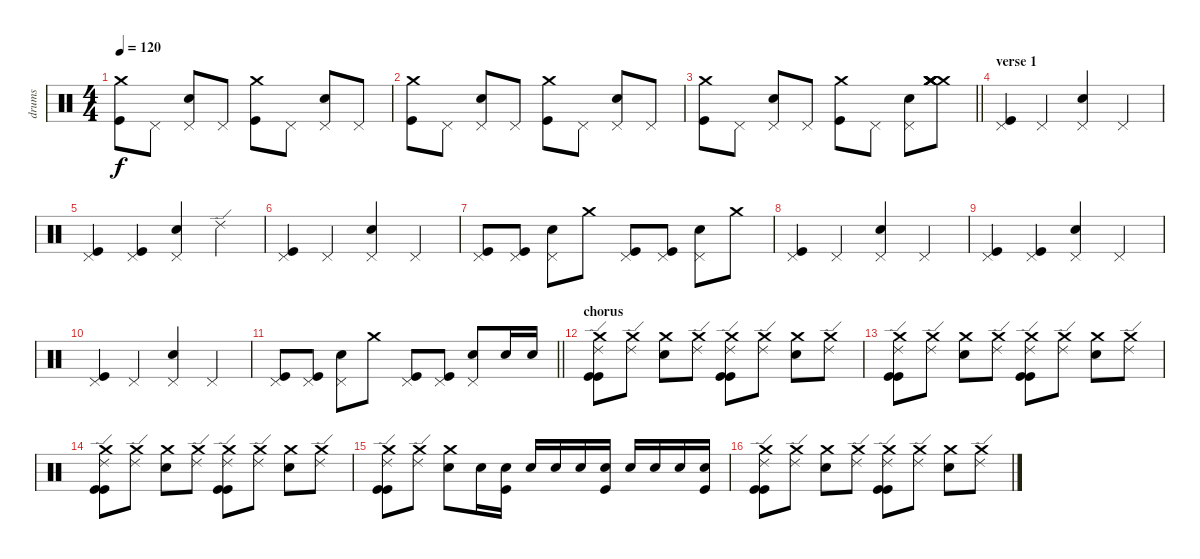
\track ("drums" "drums") {instrument percussion}
\staff {score}
\articulation defaults
\ts (4 4)
\tempo 120
\clef neutral
\ks c
("Crash medium (hit)" "Kick (hit)").8{dy f} "Pedal Hi-Hat (hit)".8 ("Pedal Hi-Hat (hit)" "Electric Snare (hit)").8 "Pedal Hi-Hat (hit)".8 ("Crash medium (hit)" "Kick (hit)").8 "Pedal Hi-Hat (hit)".8 ("Pedal Hi-Hat (hit)" "Electric Snare (hit)").8 "Pedal Hi-Hat (hit)".8 |
("Crash medium (hit)" "Kick (hit)").8 "Pedal Hi-Hat (hit)".8 ("Pedal Hi-Hat (hit)" "Electric Snare (hit)").8 "Pedal Hi-Hat (hit)".8 ("Crash medium (hit)" "Kick (hit)").8 "Pedal Hi-Hat (hit)".8 ("Pedal Hi-Hat (hit)" "Electric Snare (hit)").8 "Pedal Hi-Hat (hit)".8 |
\barLineRight lightlight
("Crash medium (hit)" "Kick (hit)").8 "Pedal Hi-Hat (hit)".8 ("Pedal Hi-Hat (hit)" "Electric Snare (hit)").8 "Pedal Hi-Hat (hit)".8 ("Crash medium (hit)" "Kick (hit)").8 "Pedal Hi-Hat (hit)".8 ("Pedal Hi-Hat (hit)" "Electric Snare (hit)").8 ("Crash medium (hit)" "Crash medium (hit)" "Crash medium (hit)" "Crash medium (hit)" "Crash medium (hit)" "Crash medium (hit)").8 |
\section ("" "verse 1")
("Pedal Hi-Hat (hit)" "Kick (hit)").4 "Pedal Hi-Hat (hit)".4 ("Pedal Hi-Hat (hit)" "Electric Snare (hit)").4 "Pedal Hi-Hat (hit)".4 |
("Pedal Hi-Hat (hit)" "Kick (hit)").4 ("Pedal Hi-Hat (hit)" "Kick (hit)").4 ("Pedal Hi-Hat (hit)" "Electric Snare (hit)").4 "Ride (edge) 2".4 |
("Pedal Hi-Hat (hit)" "Kick (hit)").4 "Pedal Hi-Hat (hit)".4 ("Pedal Hi-Hat (hit)" "Electric Snare (hit)").4 "Pedal Hi-Hat (hit)".4 |
("Pedal Hi-Hat (hit)" "Kick (hit)").8 ("Pedal Hi-Hat (hit)" "Kick (hit)").8 ("Pedal Hi-Hat (hit)" "Electric Snare (hit)").8 "Crash medium (hit)".8 ("Pedal Hi-Hat (hit)" "Kick (hit)").8 ("Pedal Hi-Hat (hit)" "Kick (hit)").8 ("Pedal Hi-Hat (hit)" "Electric Snare (hit)").8 "Crash medium (hit)".8 |
("Pedal Hi-Hat (hit)" "Kick (hit)").4 "Pedal Hi-Hat (hit)".4 ("Pedal Hi-Hat (hit)" "Electric Snare (hit)").4 "Pedal Hi-Hat (hit)".4 |
("Pedal Hi-Hat (hit)" "Kick (hit)").4 ("Pedal Hi-Hat (hit)" "Kick (hit)").4 ("Pedal Hi-Hat (hit)" "Electric Snare (hit)").4 "Pedal Hi-Hat (hit)".4 |
("Pedal Hi-Hat (hit)" "Kick (hit)").4 "Pedal Hi-Hat (hit)".4 ("Pedal Hi-Hat (hit)" "Electric Snare (hit)").4 "Pedal Hi-Hat (hit)".4 |
\barLineRight lightlight
("Pedal Hi-Hat (hit)" "Kick (hit)").8 ("Pedal Hi-Hat (hit)" "Kick (hit)").8 ("Pedal Hi-Hat (hit)" "Electric Snare (hit)").8 "Crash medium (hit)".8 ("Pedal Hi-Hat (hit)" "Kick (hit)").8 ("Pedal Hi-Hat (hit)" "Kick (hit)").8 ("Pedal Hi-Hat (hit)" "Electric Snare (hit)").8 "Electric Snare (hit)".16 "Electric Snare (hit)".16 |
\section ("" "chorus")
("Crash medium (hit)" "Ride (edge) 2" "Kick (hit)" "Kick (hit)").8 ("Crash medium (hit)" "Ride (edge) 2").8 ("Crash medium (hit)" "Electric Snare (hit)").8 ("Crash medium (hit)" "Ride (edge) 2").8 ("Crash medium (hit)" "Ride (edge) 2" "Kick (hit)" "Kick (hit)").8 ("Crash medium (hit)" "Ride (edge) 2").8 ("Crash medium (hit)" "Electric Snare (hit)").8 ("Crash medium (hit)" "Ride (edge) 2").8 |
("Crash medium (hit)" "Ride (edge) 2" "Kick (hit)" "Kick (hit)").8 ("Crash medium (hit)" "Ride (edge) 2").8 ("Crash medium (hit)" "Electric Snare (hit)").8 ("Crash medium (hit)" "Ride (edge) 2").8 ("Crash medium (hit)" "Ride (edge) 2" "Kick (hit)" "Kick (hit)").8 ("Crash medium (hit)" "Ride (edge) 2").8 ("Crash medium (hit)" "Electric Snare (hit)").8 ("Crash medium (hit)" "Ride (edge) 2").8 |
("Crash medium (hit)" "Ride (edge) 2" "Kick (hit)" "Kick (hit)").8 ("Crash medium (hit)" "Ride (edge) 2").8 ("Crash medium (hit)" "Electric Snare (hit)").8 ("Crash medium (hit)" "Ride (edge) 2").8 ("Crash medium (hit)" "Ride (edge) 2" "Kick (hit)" "Kick (hit)").8 ("Crash medium (hit)" "Ride (edge) 2").8 ("Crash medium (hit)" "Electric Snare (hit)").8 ("Crash medium (hit)" "Ride (edge) 2").8 |
("Crash medium (hit)" "Ride (edge) 2" "Kick (hit)" "Kick (hit)").8 ("Crash medium (hit)" "Ride (edge) 2").8 ("Crash medium (hit)" "Electric Snare (hit)").8 "Electric Snare (hit)".16 ("Electric Snare (hit)" "Kick (hit)").16 "Electric Snare (hit)".16 "Electric Snare (hit)".16 "Electric Snare (hit)".16 ("Electric Snare (hit)" "Kick (hit)").16 "Electric Snare (hit)".16 "Electric Snare (hit)".16 "Electric Snare (hit)".16 ("Electric Snare (hit)" "Kick (hit)").16 |
("Crash medium (hit)" "Ride (edge) 2" "Kick (hit)" "Kick (hit)").8 ("Crash medium (hit)" "Ride (edge) 2").8 ("Crash medium (hit)" "Electric Snare (hit)").8 ("Crash medium (hit)" "Ride (edge) 2").8 ("Crash medium (hit)" "Ride (edge) 2" "Kick (hit)" "Kick (hit)").8 ("Crash medium (hit)" "Ride (edge) 2").8 ("Crash medium (hit)" "Electric Snare (hit)").8 ("Crash medium (hit)" "Ride (edge) 2").8
